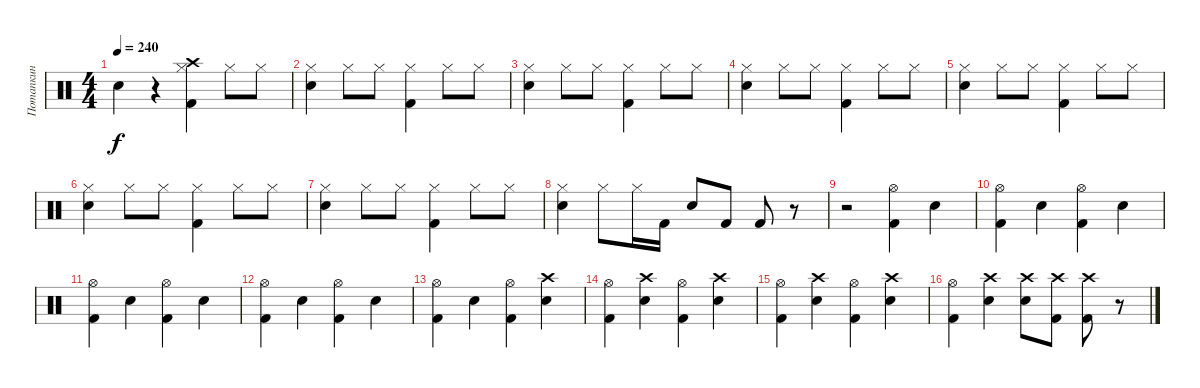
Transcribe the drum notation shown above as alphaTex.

\track ("Потапкин" "Потапкин") {instrument percussion}
\staff {score}
\articulation defaults
\ts (4 4)
\tempo 240
\clef neutral
\ks c "Electric Snare (hit)".4{dy f}
r.4 ("Crash high (hit)" "Hi-Hat (closed)" "Kick (hit) 2").4 "Hi-Hat (closed)".8 "Hi-Hat (closed)".8 |
("Hi-Hat (closed)" "Electric Snare (hit)").4 "Hi-Hat (closed)".8 "Hi-Hat (closed)".8 ("Hi-Hat (closed)" "Kick (hit) 2").4 "Hi-Hat (closed)".8 "Hi-Hat (closed)".8 |
("Hi-Hat (closed)" "Electric Snare (hit)").4 "Hi-Hat (closed)".8 "Hi-Hat (closed)".8 ("Hi-Hat (closed)" "Kick (hit) 2").4 "Hi-Hat (closed)".8 "Hi-Hat (closed)".8 |
("Hi-Hat (closed)" "Electric Snare (hit)").4 "Hi-Hat (closed)".8 "Hi-Hat (closed)".8 ("Hi-Hat (closed)" "Kick (hit) 2").4 "Hi-Hat (closed)".8 "Hi-Hat (closed)".8 |
("Hi-Hat (closed)" "Electric Snare (hit)").4 "Hi-Hat (closed)".8 "Hi-Hat (closed)".8 ("Hi-Hat (closed)" "Kick (hit) 2").4 "Hi-Hat (closed)".8 "Hi-Hat (closed)".8 |
("Hi-Hat (closed)" "Electric Snare (hit)").4 "Hi-Hat (closed)".8 "Hi-Hat (closed)".8 ("Hi-Hat (closed)" "Kick (hit) 2").4 "Hi-Hat (closed)".8 "Hi-Hat (closed)".8 |
("Hi-Hat (closed)" "Electric Snare (hit)").4 "Hi-Hat (closed)".8 "Hi-Hat (closed)".8 ("Hi-Hat (closed)" "Kick (hit) 2").4 "Hi-Hat (closed)".8 "Hi-Hat (closed)".8 |
("Hi-Hat (closed)" "Electric Snare (hit)").4 "Hi-Hat (closed)".8 "Hi-Hat (closed)".16 "Kick (hit) 2".16 "Electric Snare (hit)".8 "Kick (hit) 2".8 "Kick (hit) 2".8 r.8 |
r.2 ("Hi-Hat (open)" "Kick (hit) 2").4 "Electric Snare (hit)".4 |
("Hi-Hat (open)" "Kick (hit) 2").4 "Electric Snare (hit)".4 ("Hi-Hat (open)" "Kick (hit) 2").4 "Electric Snare (hit)".4 |
("Hi-Hat (open)" "Kick (hit) 2").4 "Electric Snare (hit)".4 ("Hi-Hat (open)" "Kick (hit) 2").4 "Electric Snare (hit)".4 |
("Hi-Hat (open)" "Kick (hit) 2").4 "Electric Snare (hit)".4 ("Hi-Hat (open)" "Kick (hit) 2").4 "Electric Snare (hit)".4 |
("Hi-Hat (open)" "Kick (hit) 2").4 "Electric Snare (hit)".4 ("Hi-Hat (open)" "Kick (hit) 2").4 ("Crash high (hit)" "Electric Snare (hit)").4 |
("Hi-Hat (open)" "Kick (hit) 2").4 ("Crash high (hit)" "Electric Snare (hit)").4 ("Hi-Hat (open)" "Kick (hit) 2").4 ("Crash high (hit)" "Electric Snare (hit)").4 |
("Hi-Hat (open)" "Kick (hit) 2").4 ("Crash high (hit)" "Electric Snare (hit)").4 ("Hi-Hat (open)" "Kick (hit) 2").4 ("Crash high (hit)" "Electric Snare (hit)").4 |
("Hi-Hat (open)" "Kick (hit) 2").4 ("Crash high (hit)" "Electric Snare (hit)").4 ("Crash high (hit)" "Electric Snare (hit)").8 ("Crash high (hit)" "Kick (hit) 2").8 ("Kick (hit) 2" "Crash high (hit)").8 r.8
